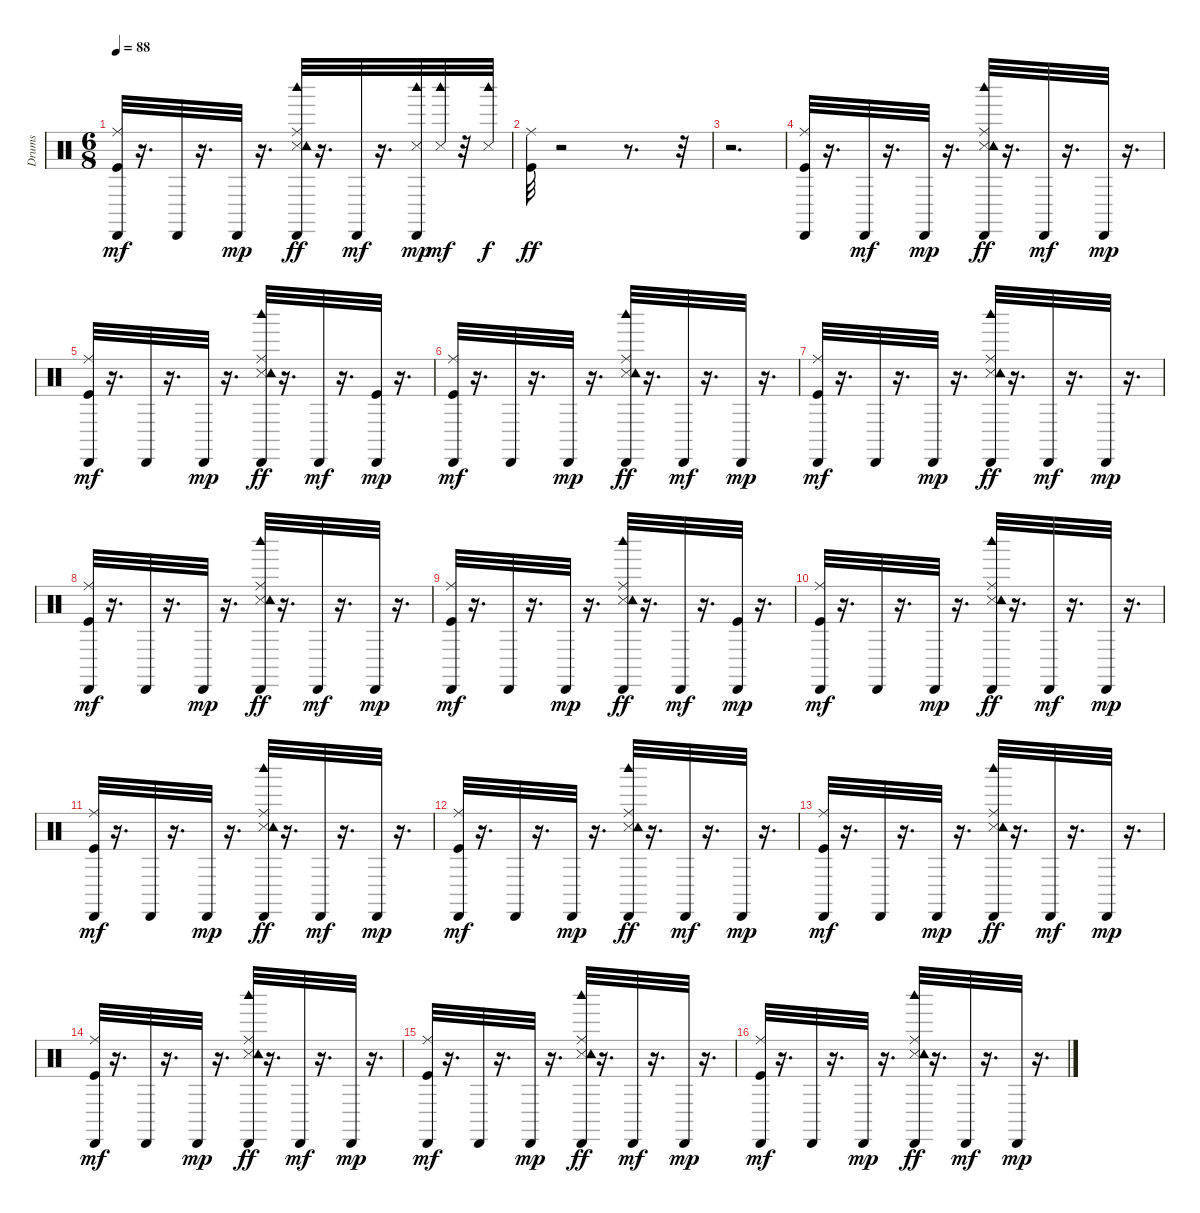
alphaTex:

\track ("Drums               " "Drums     ") {instrument percussion}
\staff {score}
\articulation defaults
\ts (6 8)
\tempo 88
\clef neutral
\ks c
("Kick (hit)" "Ride (middle)" "Cabasa (hit)").32{dy mf} r.16{d} "Cabasa (hit)".32 r.16{d} "Cabasa (hit)".32{dy mp} r.16{d} ("Snare (side stick) 3" "Ride (middle)" "Tambourine (hit)" "Cabasa (hit)" "Woodblock high (hit)").32{dy ff} r.16{d} "Cabasa (hit)".32{dy mf} r.16{d} ("Snare (side stick) 3" "Cabasa (hit)" "Woodblock high (hit)").32{dy mp} ("Snare (side stick) 3" "Woodblock high (hit)").32{dy mf} r.32 ("Snare (side stick) 3" "Woodblock high (hit)").32{dy f} |
("Kick (hit)" "Ride (middle)").32{dy ff} r.2 r.8{d} r.32 |
r.2{d} |
("Kick (hit)" "Ride (middle)" "Cabasa (hit)").32 r.16{d} "Cabasa (hit)".32{dy mf} r.16{d} "Cabasa (hit)".32{dy mp} r.16{d} ("Snare (side stick) 3" "Ride (middle)" "Tambourine (hit)" "Cabasa (hit)" "Woodblock high (hit)").32{dy ff} r.16{d} "Cabasa (hit)".32{dy mf} r.16{d} "Cabasa (hit)".32{dy mp} r.16{d} |
("Kick (hit)" "Ride (middle)" "Cabasa (hit)").32{dy mf} r.16{d} "Cabasa (hit)".32 r.16{d} "Cabasa (hit)".32{dy mp} r.16{d} ("Snare (side stick) 3" "Ride (middle)" "Tambourine (hit)" "Cabasa (hit)" "Woodblock high (hit)").32{dy ff} r.16{d} "Cabasa (hit)".32{dy mf} r.16{d} ("Kick (hit)" "Cabasa (hit)").32{dy mp} r.16{d} |
("Kick (hit)" "Ride (middle)" "Cabasa (hit)").32{dy mf} r.16{d} "Cabasa (hit)".32 r.16{d} "Cabasa (hit)".32{dy mp} r.16{d} ("Snare (side stick) 3" "Ride (middle)" "Tambourine (hit)" "Cabasa (hit)" "Woodblock high (hit)").32{dy ff} r.16{d} "Cabasa (hit)".32{dy mf} r.16{d} "Cabasa (hit)".32{dy mp} r.16{d} |
("Kick (hit)" "Ride (middle)" "Cabasa (hit)").32{dy mf} r.16{d} "Cabasa (hit)".32 r.16{d} "Cabasa (hit)".32{dy mp} r.16{d} ("Snare (side stick) 3" "Ride (middle)" "Tambourine (hit)" "Cabasa (hit)" "Woodblock high (hit)").32{dy ff} r.16{d} "Cabasa (hit)".32{dy mf} r.16{d} "Cabasa (hit)".32{dy mp} r.16{d} |
("Kick (hit)" "Ride (middle)" "Cabasa (hit)").32{dy mf} r.16{d} "Cabasa (hit)".32 r.16{d} "Cabasa (hit)".32{dy mp} r.16{d} ("Snare (side stick) 3" "Ride (middle)" "Tambourine (hit)" "Cabasa (hit)" "Woodblock high (hit)").32{dy ff} r.16{d} "Cabasa (hit)".32{dy mf} r.16{d} "Cabasa (hit)".32{dy mp} r.16{d} |
("Kick (hit)" "Ride (middle)" "Cabasa (hit)").32{dy mf} r.16{d} "Cabasa (hit)".32 r.16{d} "Cabasa (hit)".32{dy mp} r.16{d} ("Snare (side stick) 3" "Ride (middle)" "Tambourine (hit)" "Cabasa (hit)" "Woodblock high (hit)").32{dy ff} r.16{d} "Cabasa (hit)".32{dy mf} r.16{d} ("Kick (hit)" "Cabasa (hit)").32{dy mp} r.16{d} |
("Kick (hit)" "Ride (middle)" "Cabasa (hit)").32{dy mf} r.16{d} "Cabasa (hit)".32 r.16{d} "Cabasa (hit)".32{dy mp} r.16{d} ("Snare (side stick) 3" "Ride (middle)" "Tambourine (hit)" "Cabasa (hit)" "Woodblock high (hit)").32{dy ff} r.16{d} "Cabasa (hit)".32{dy mf} r.16{d} "Cabasa (hit)".32{dy mp} r.16{d} |
("Kick (hit)" "Ride (middle)" "Cabasa (hit)").32{dy mf} r.16{d} "Cabasa (hit)".32 r.16{d} "Cabasa (hit)".32{dy mp} r.16{d} ("Snare (side stick) 3" "Ride (middle)" "Tambourine (hit)" "Cabasa (hit)" "Woodblock high (hit)").32{dy ff} r.16{d} "Cabasa (hit)".32{dy mf} r.16{d} "Cabasa (hit)".32{dy mp} r.16{d} |
("Kick (hit)" "Ride (middle)" "Cabasa (hit)").32{dy mf} r.16{d} "Cabasa (hit)".32 r.16{d} "Cabasa (hit)".32{dy mp} r.16{d} ("Snare (side stick) 3" "Ride (middle)" "Tambourine (hit)" "Cabasa (hit)" "Woodblock high (hit)").32{dy ff} r.16{d} "Cabasa (hit)".32{dy mf} r.16{d} "Cabasa (hit)".32{dy mp} r.16{d} |
("Kick (hit)" "Ride (middle)" "Cabasa (hit)").32{dy mf} r.16{d} "Cabasa (hit)".32 r.16{d} "Cabasa (hit)".32{dy mp} r.16{d} ("Snare (side stick) 3" "Ride (middle)" "Tambourine (hit)" "Cabasa (hit)" "Woodblock high (hit)").32{dy ff} r.16{d} "Cabasa (hit)".32{dy mf} r.16{d} "Cabasa (hit)".32{dy mp} r.16{d} |
("Kick (hit)" "Ride (middle)" "Cabasa (hit)").32{dy mf} r.16{d} "Cabasa (hit)".32 r.16{d} "Cabasa (hit)".32{dy mp} r.16{d} ("Snare (side stick) 3" "Ride (middle)" "Tambourine (hit)" "Cabasa (hit)" "Woodblock high (hit)").32{dy ff} r.16{d} "Cabasa (hit)".32{dy mf} r.16{d} "Cabasa (hit)".32{dy mp} r.16{d} |
("Kick (hit)" "Ride (middle)" "Cabasa (hit)").32{dy mf} r.16{d} "Cabasa (hit)".32 r.16{d} "Cabasa (hit)".32{dy mp} r.16{d} ("Snare (side stick) 3" "Ride (middle)" "Tambourine (hit)" "Cabasa (hit)" "Woodblock high (hit)").32{dy ff} r.16{d} "Cabasa (hit)".32{dy mf} r.16{d} "Cabasa (hit)".32{dy mp} r.16{d} |
("Kick (hit)" "Ride (middle)" "Cabasa (hit)").32{dy mf} r.16{d} "Cabasa (hit)".32 r.16{d} "Cabasa (hit)".32{dy mp} r.16{d} ("Snare (side stick) 3" "Ride (middle)" "Tambourine (hit)" "Cabasa (hit)" "Woodblock high (hit)").32{dy ff} r.16{d} "Cabasa (hit)".32{dy mf} r.16{d} "Cabasa (hit)".32{dy mp} r.16{d}
